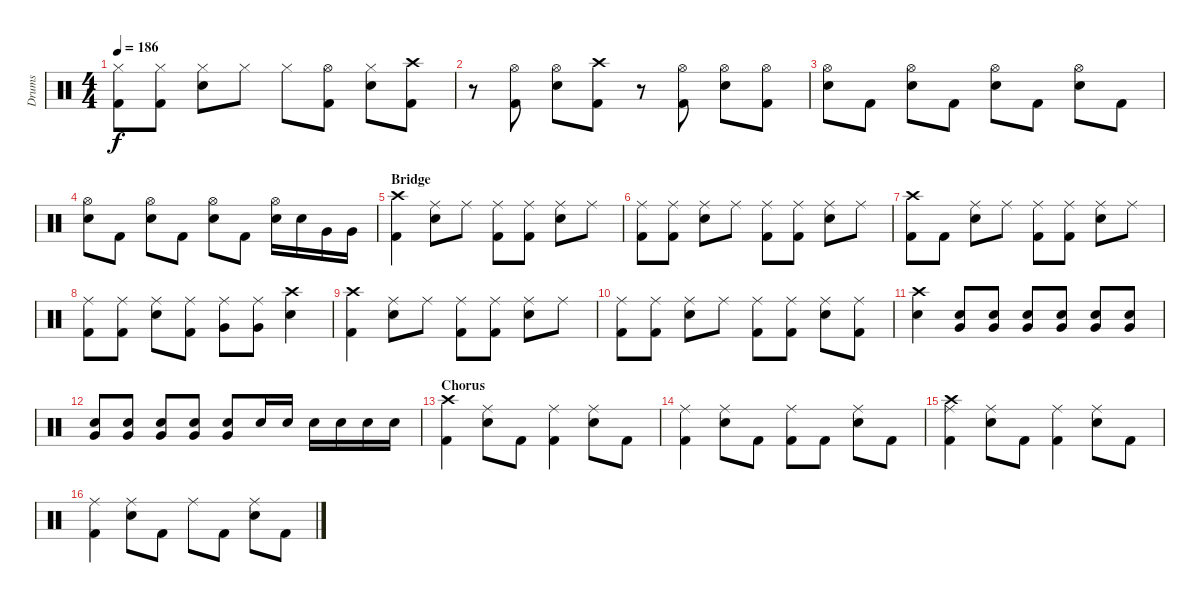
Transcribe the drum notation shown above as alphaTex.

\track ("Drums" "Drums") {instrument percussion}
\staff {score}
\articulation defaults
\ts (4 4)
\tempo 186
\clef neutral
\ks c
("Hi-Hat (closed)" "Kick (hit) 2").8{dy f} ("Hi-Hat (closed)" "Kick (hit) 2").8 ("Hi-Hat (closed)" "Snare (hit) 2").8 "Hi-Hat (closed)".8 "Hi-Hat (closed)".8 ("Hi-Hat (open)" "Kick (hit) 2").8 ("Hi-Hat (closed)" "Snare (hit) 2").8 ("Crash high (hit)" "Kick (hit) 2").8 |
r.8 ("Hi-Hat (open)" "Kick (hit) 2").8 ("Hi-Hat (open)" "Snare (hit) 2").8 ("Crash high (hit)" "Kick (hit) 2").8 r.8 ("Hi-Hat (open)" "Kick (hit) 2").8 ("Hi-Hat (open)" "Snare (hit) 2").8 ("Hi-Hat (open)" "Kick (hit) 2").8 |
("Hi-Hat (open)" "Snare (hit) 2").8 "Kick (hit) 2".8 ("Hi-Hat (open)" "Snare (hit) 2").8 "Kick (hit) 2".8 ("Hi-Hat (open)" "Snare (hit) 2").8 "Kick (hit) 2".8 ("Hi-Hat (open)" "Snare (hit) 2").8 "Kick (hit) 2".8 |
("Hi-Hat (open)" "Snare (hit) 2").8 "Kick (hit) 2".8 ("Hi-Hat (open)" "Snare (hit) 2").8 "Kick (hit) 2".8 ("Hi-Hat (open)" "Snare (hit) 2").8 "Kick (hit) 2".8 ("Hi-Hat (open)" "Snare (hit) 2").16 "Snare (hit) 2".16 "Very Low Tom (hit)".16 "Very Low Tom (hit)".16 |
\section ("" "Bridge")
("Crash high (hit)" "Kick (hit) 2").4 ("Ride (middle)" "Snare (hit) 2").8 "Ride (middle)".8 ("Ride (middle)" "Kick (hit) 2").8 ("Ride (middle)" "Kick (hit) 2").8 ("Ride (middle)" "Snare (hit) 2").8 "Ride (middle)".8 |
("Ride (middle)" "Kick (hit) 2").8 ("Ride (middle)" "Kick (hit) 2").8 ("Ride (middle)" "Snare (hit) 2").8 "Ride (middle)".8 ("Ride (middle)" "Kick (hit) 2").8 ("Ride (middle)" "Kick (hit) 2").8 ("Ride (middle)" "Snare (hit) 2").8 "Ride (middle)".8 |
("Crash high (hit)" "Kick (hit) 2").8 "Kick (hit) 2".8 ("Ride (middle)" "Snare (hit) 2").8 "Ride (middle)".8 ("Ride (middle)" "Kick (hit) 2").8 ("Ride (middle)" "Kick (hit) 2").8 ("Ride (middle)" "Snare (hit) 2").8 "Ride (middle)".8 |
("Ride (middle)" "Kick (hit) 2").8 ("Ride (middle)" "Kick (hit) 2").8 ("Ride (middle)" "Snare (hit) 2").8 ("Ride (middle)" "Kick (hit) 2").8 ("Ride (middle)" "Very Low Tom (hit)").8 ("Ride (middle)" "Very Low Tom (hit)").8 ("Crash high (hit)" "Snare (hit) 2").4 |
("Crash high (hit)" "Kick (hit) 2").4 ("Ride (middle)" "Snare (hit) 2").8 "Ride (middle)".8 ("Ride (middle)" "Kick (hit) 2").8 ("Ride (middle)" "Kick (hit) 2").8 ("Ride (middle)" "Snare (hit) 2").8 "Ride (middle)".8 |
("Ride (middle)" "Kick (hit) 2").8 ("Ride (middle)" "Kick (hit) 2").8 ("Ride (middle)" "Snare (hit) 2").8 "Ride (middle)".8 ("Ride (middle)" "Kick (hit) 2").8 ("Ride (middle)" "Kick (hit) 2").8 ("Ride (middle)" "Snare (hit) 2").8 ("Ride (middle)" "Kick (hit) 2").8 |
("Crash high (hit)" "Snare (hit) 2").4 ("Snare (hit) 2" "Very Low Tom (hit)").8{volume 16} ("Snare (hit) 2" "Very Low Tom (hit)").8 ("Snare (hit) 2" "Very Low Tom (hit)").8 ("Snare (hit) 2" "Very Low Tom (hit)").8 ("Snare (hit) 2" "Very Low Tom (hit)").8 ("Snare (hit) 2" "Very Low Tom (hit)").8 |
("Snare (hit) 2" "Very Low Tom (hit)").8 ("Snare (hit) 2" "Very Low Tom (hit)").8 ("Snare (hit) 2" "Very Low Tom (hit)").8 ("Snare (hit) 2" "Very Low Tom (hit)").8 ("Snare (hit) 2" "Very Low Tom (hit)").8 "Snare (hit) 2".16 "Snare (hit) 2".16 "Snare (hit) 2".16 "Snare (hit) 2".16 "Snare (hit) 2".16 "Snare (hit) 2".16 |
\section ("" "Chorus")
("Crash high (hit)" "Kick (hit) 2").4{volume 13} ("Ride (middle)" "Snare (hit) 2").8 "Kick (hit) 2".8 ("Ride (middle)" "Kick (hit) 2").4 ("Ride (middle)" "Snare (hit) 2").8 "Kick (hit) 2".8 |
("Ride (middle)" "Kick (hit) 2").4 ("Ride (middle)" "Snare (hit) 2").8 "Kick (hit) 2".8 ("Ride (middle)" "Kick (hit) 2").8 "Kick (hit) 2".8 ("Ride (middle)" "Snare (hit) 2").8 "Kick (hit) 2".8 |
("Crash high (hit)" "Ride (middle)" "Kick (hit) 2").4 ("Ride (middle)" "Snare (hit) 2").8 "Kick (hit) 2".8 ("Ride (middle)" "Kick (hit) 2").4 ("Ride (middle)" "Snare (hit) 2").8 "Kick (hit) 2".8 |
("Ride (middle)" "Kick (hit) 2").4 ("Ride (middle)" "Snare (hit) 2").8 "Kick (hit) 2".8 "Ride (middle)".8 "Kick (hit) 2".8 ("Ride (middle)" "Snare (hit) 2").8 "Kick (hit) 2".8
